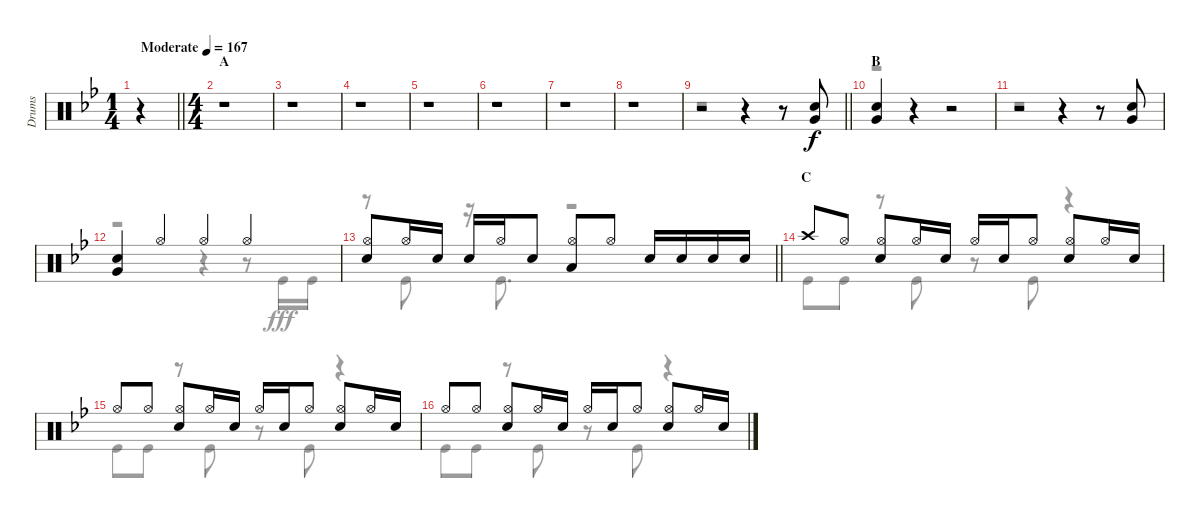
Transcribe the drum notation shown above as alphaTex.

\track ("Drums" "Drums") {instrument percussion}
\staff {score}
\articulation defaults
\voice
\ts (1 4)
\tempo (167 "Moderate")
\clef neutral
\barLineRight lightlight
\ks bb
r.4{dy f} |
\ts (4 4)
\section ("" "A")
r.1 |
r.1 |
r.1 |
r.1 |
r.1 |
r.1 |
r.1 |
\barLineRight lightlight
r.2 r.4 r.8 ("Snare (hit) 2" "Very Low Tom (hit)").8 |
\section ("" "B")
("Snare (hit) 2" "Very Low Tom (hit)").4 r.4 r.2 |
r.2 r.4 r.8 ("Snare (hit) 2" "Very Low Tom (hit)").8 |
("Snare (hit) 2" "Very Low Tom (hit)").4 "Hi-Hat (open)".4 "Hi-Hat (open)".4 "Hi-Hat (open)".4 |
\barLineRight lightlight
("Hi-Hat (open)" "Snare (hit) 2").8 "Hi-Hat (open)".16 "Snare (hit) 2".16 "Snare (hit) 2".16 "Hi-Hat (open)".16 "Snare (hit) 2".8 ("Hi-Hat (open)" "Low Tom (hit)").8 "Hi-Hat (open)".8 "Snare (hit) 2".16 "Snare (hit) 2".16 "Snare (hit) 2".16 "Snare (hit) 2".16 |
\section ("" "C")
"Crash high (hit)".8 "Hi-Hat (open)".8 ("Hi-Hat (open)" "Snare (hit) 2").8 "Hi-Hat (open)".16 "Snare (hit) 2".16 "Hi-Hat (open)".16 "Snare (hit) 2".16 "Hi-Hat (open)".8 ("Hi-Hat (open)" "Snare (hit) 2").8 "Hi-Hat (open)".16 "Snare (hit) 2".16 |
"Hi-Hat (open)".8 "Hi-Hat (open)".8 ("Hi-Hat (open)" "Snare (hit) 2").8 "Hi-Hat (open)".16 "Snare (hit) 2".16 "Hi-Hat (open)".16 "Snare (hit) 2".16 "Hi-Hat (open)".8 ("Hi-Hat (open)" "Snare (hit) 2").8 "Hi-Hat (open)".16 "Snare (hit) 2".16 |
"Hi-Hat (open)".8 "Hi-Hat (open)".8 ("Hi-Hat (open)" "Snare (hit) 2").8 "Hi-Hat (open)".16 "Snare (hit) 2".16 "Hi-Hat (open)".16 "Snare (hit) 2".16 "Hi-Hat (open)".8 ("Hi-Hat (open)" "Snare (hit) 2").8 "Hi-Hat (open)".16 "Snare (hit) 2".16
\voice
\clef neutral
\ottava regular
\simile none
\barLineRight lightlight
\ks bb
r.4{dy fff} |
r.1 |
r.1 |
r.1 |
r.1 |
r.1 |
r.1 |
r.1 |
\barLineRight lightlight
r.1 |
r.1 |
r.1 |
r.2 r.4 r.8 "Kick (hit)".16 "Kick (hit)".16 |
\barLineRight lightlight
r.8 "Kick (hit)".8 r.16 "Kick (hit)".8{d} r.2 |
"Kick (hit)".8 "Kick (hit)".8 r.8 "Kick (hit)".8 r.8 "Kick (hit)".8 r.4 |
"Kick (hit)".8 "Kick (hit)".8 r.8 "Kick (hit)".8 r.8 "Kick (hit)".8 r.4 |
"Kick (hit)".8 "Kick (hit)".8 r.8 "Kick (hit)".8 r.8 "Kick (hit)".8 r.4
